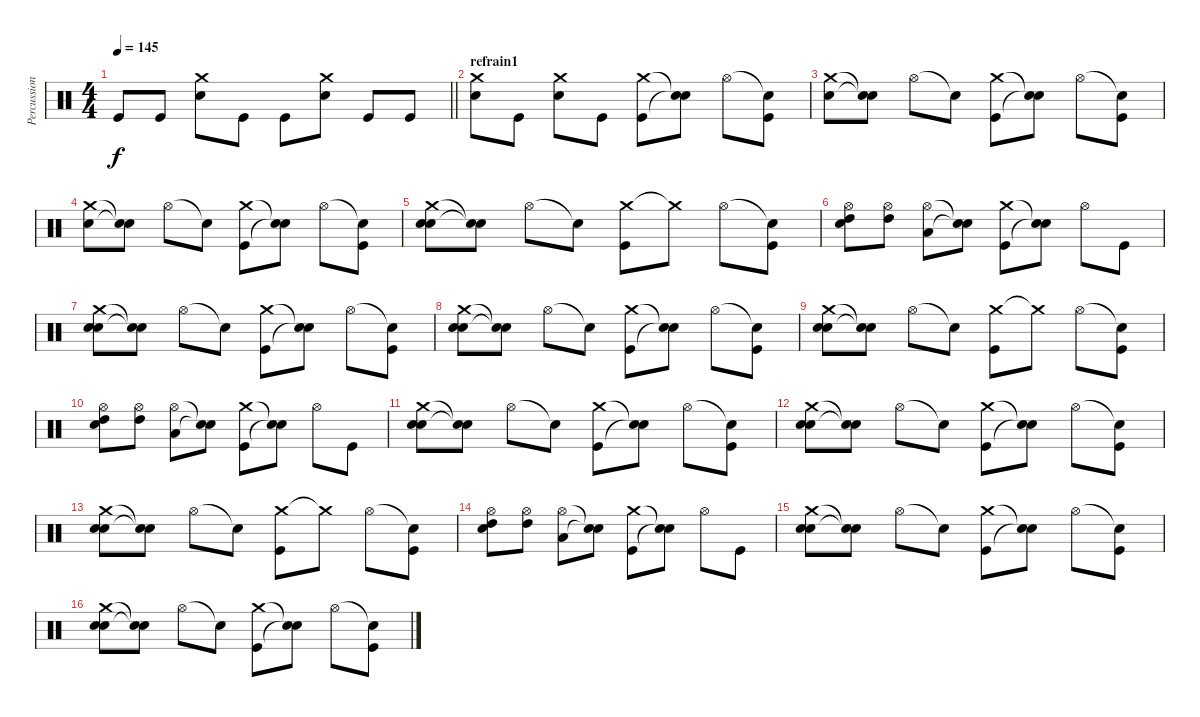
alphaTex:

\track ("Percussions" "Percussion") {instrument percussion}
\staff {score}
\articulation defaults
\ts (4 4)
\tempo 145
\clef neutral
\barLineRight lightlight
\ks c "Kick (hit)".8{dy f} "Kick (hit)".8
("Crash medium (hit)" "Electric Snare (hit)").8 "Kick (hit)".8 "Kick (hit)".8 ("Crash medium (hit)" "Electric Snare (hit)").8 "Kick (hit)".8 "Kick (hit)".8 |
\section ("" "refrain1")
("Crash medium (hit)" "Electric Snare (hit)").8 "Kick (hit)".8 ("Crash medium (hit)" "Electric Snare (hit)").8 "Kick (hit)".8 ("Crash medium (hit)" "Kick (hit)").8 ("Snare (hit)"{t} "Snare (hit)"{t}).8 "Hi-Hat (open)".8 ("Electric Snare (hit)"{t} "Kick (hit)").8 |
("Crash medium (hit)" "Electric Snare (hit)").8 ("Snare (hit)"{t} "Snare (hit)"{t}).8 "Hi-Hat (open)".8 "Snare (hit)"{t}.8 ("Crash medium (hit)" "Kick (hit)").8 ("Snare (hit)"{t} "Snare (hit)"{t}).8 "Hi-Hat (open)".8 ("Snare (hit)"{t} "Kick (hit)").8 |
("Crash medium (hit)" "Electric Snare (hit)").8 ("Snare (hit)"{t} "Snare (hit)"{t}).8 "Hi-Hat (open)".8 "Snare (hit)"{t}.8 ("Crash medium (hit)" "Kick (hit)").8 ("Snare (hit)"{t} "Snare (hit)"{t}).8 "Hi-Hat (open)".8 ("Snare (hit)"{t} "Kick (hit)").8 |
("Crash medium (hit)" "Electric Snare (hit)" "Electric Snare (hit)").8 ("Snare (hit)"{t} "Snare (hit)"{t}).8 "Hi-Hat (open)".8 "Snare (hit)"{t}.8 ("Crash medium (hit)" "Kick (hit)").8 "Crash medium (hit)"{t}.8 "Hi-Hat (open)".8 ("Snare (hit)"{t} "Kick (hit)").8 |
("Hi-Hat (open)" "High Tom (hit)" "Electric Snare (hit)").8{volume 12} ("Hi-Hat (open)" "High Tom (hit)").8 ("Hi-Hat (open)" "Low Floor Tom (hit)").8 ("Snare (hit)"{t} "Snare (hit)"{t}).8 ("Crash medium (hit)" "Kick (hit)").8{volume 16} ("Snare (hit)"{t} "Snare (hit)"{t}).8 "Hi-Hat (open)".8 "Kick (hit)".8 |
("Crash medium (hit)" "Electric Snare (hit)" "Electric Snare (hit)").8 ("Snare (hit)"{t} "Snare (hit)"{t}).8 "Hi-Hat (open)".8 "Snare (hit)"{t}.8 ("Crash medium (hit)" "Kick (hit)").8 ("Snare (hit)"{t} "Snare (hit)"{t}).8 "Hi-Hat (open)".8 ("Snare (hit)"{t} "Kick (hit)").8 |
("Crash medium (hit)" "Electric Snare (hit)" "Electric Snare (hit)").8 ("Snare (hit)"{t} "Snare (hit)"{t}).8 "Hi-Hat (open)".8 "Snare (hit)"{t}.8 ("Crash medium (hit)" "Kick (hit)").8 ("Snare (hit)"{t} "Snare (hit)"{t}).8 "Hi-Hat (open)".8 ("Snare (hit)"{t} "Kick (hit)").8 |
("Crash medium (hit)" "Electric Snare (hit)" "Electric Snare (hit)").8 ("Snare (hit)"{t} "Snare (hit)"{t}).8 "Hi-Hat (open)".8 "Snare (hit)"{t}.8 ("Crash medium (hit)" "Kick (hit)").8 "Crash medium (hit)"{t}.8 "Hi-Hat (open)".8 ("Snare (hit)"{t} "Kick (hit)").8 |
("Hi-Hat (open)" "High Tom (hit)" "Electric Snare (hit)").8{volume 12} ("Hi-Hat (open)" "High Tom (hit)").8 ("Hi-Hat (open)" "Low Floor Tom (hit)").8 ("Snare (hit)"{t} "Snare (hit)"{t}).8 ("Crash medium (hit)" "Kick (hit)").8{volume 16} ("Snare (hit)"{t} "Snare (hit)"{t}).8 "Hi-Hat (open)".8 "Kick (hit)".8 |
("Crash medium (hit)" "Electric Snare (hit)" "Electric Snare (hit)").8 ("Snare (hit)"{t} "Snare (hit)"{t}).8 "Hi-Hat (open)".8 "Snare (hit)"{t}.8 ("Crash medium (hit)" "Kick (hit)").8 ("Snare (hit)"{t} "Snare (hit)"{t}).8 "Hi-Hat (open)".8 ("Snare (hit)"{t} "Kick (hit)").8 |
("Crash medium (hit)" "Electric Snare (hit)" "Electric Snare (hit)").8 ("Snare (hit)"{t} "Snare (hit)"{t}).8 "Hi-Hat (open)".8 "Snare (hit)"{t}.8 ("Crash medium (hit)" "Kick (hit)").8 ("Snare (hit)"{t} "Snare (hit)"{t}).8 "Hi-Hat (open)".8 ("Snare (hit)"{t} "Kick (hit)").8 |
("Crash medium (hit)" "Electric Snare (hit)" "Electric Snare (hit)").8 ("Snare (hit)"{t} "Snare (hit)"{t}).8 "Hi-Hat (open)".8 "Snare (hit)"{t}.8 ("Crash medium (hit)" "Kick (hit)").8 "Crash medium (hit)"{t}.8 "Hi-Hat (open)".8 ("Snare (hit)"{t} "Kick (hit)").8 |
("Hi-Hat (open)" "High Tom (hit)" "Electric Snare (hit)").8{volume 12} ("Hi-Hat (open)" "High Tom (hit)").8 ("Hi-Hat (open)" "Low Floor Tom (hit)").8 ("Snare (hit)"{t} "Snare (hit)"{t}).8 ("Crash medium (hit)" "Kick (hit)").8{volume 16} ("Snare (hit)"{t} "Snare (hit)"{t}).8 "Hi-Hat (open)".8 "Kick (hit)".8 |
("Crash medium (hit)" "Electric Snare (hit)" "Electric Snare (hit)").8 ("Snare (hit)"{t} "Snare (hit)"{t}).8 "Hi-Hat (open)".8 "Snare (hit)"{t}.8 ("Crash medium (hit)" "Kick (hit)").8 ("Snare (hit)"{t} "Snare (hit)"{t}).8 "Hi-Hat (open)".8 ("Snare (hit)"{t} "Kick (hit)").8 |
("Crash medium (hit)" "Electric Snare (hit)" "Electric Snare (hit)").8 ("Snare (hit)"{t} "Snare (hit)"{t}).8 "Hi-Hat (open)".8 "Snare (hit)"{t}.8 ("Crash medium (hit)" "Kick (hit)").8 ("Snare (hit)"{t} "Snare (hit)"{t}).8 "Hi-Hat (open)".8 ("Snare (hit)"{t} "Kick (hit)").8
